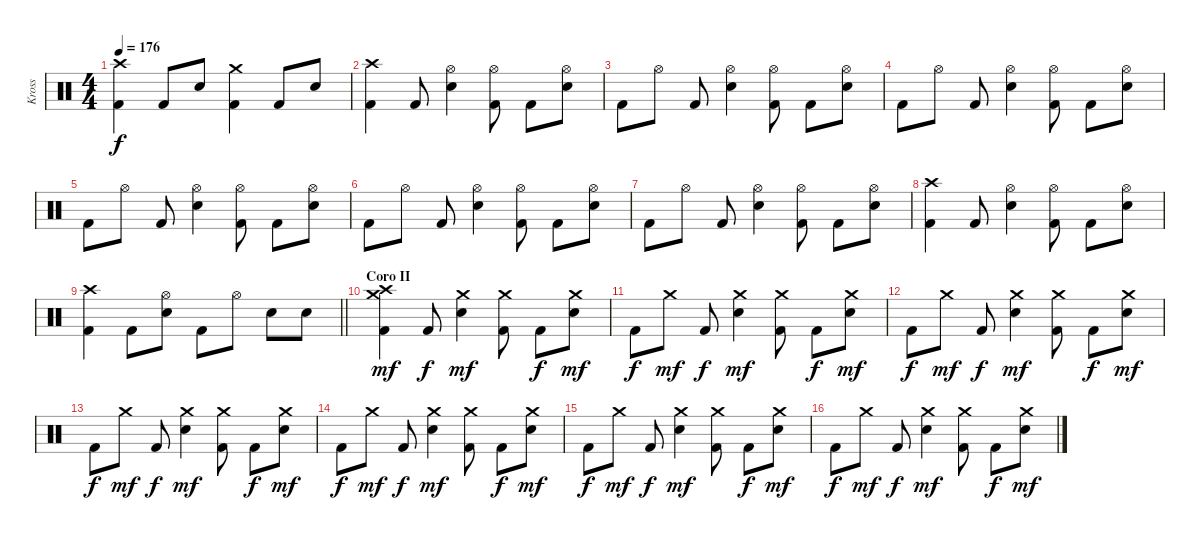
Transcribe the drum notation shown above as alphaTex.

\track ("Kross" "Kross") {instrument percussion}
\staff {score}
\articulation defaults
\ts (4 4)
\tempo 176
\clef neutral
\ks c
("Crash high (hit)" "Kick (hit) 2").4{dy f} "Kick (hit) 2".8 "Electric Snare (hit)".8 ("Crash medium (hit)" "Kick (hit) 2").4 "Kick (hit) 2".8 "Electric Snare (hit)".8 |
("Crash high (hit)" "Kick (hit) 2").4 "Kick (hit) 2".8 ("Hi-Hat (open)" "Electric Snare (hit)").4 ("Hi-Hat (open)" "Kick (hit) 2").8 "Kick (hit) 2".8 ("Hi-Hat (open)" "Electric Snare (hit)").8 |
"Kick (hit) 2".8 "Hi-Hat (open)".8 "Kick (hit) 2".8 ("Hi-Hat (open)" "Electric Snare (hit)").4 ("Hi-Hat (open)" "Kick (hit) 2").8 "Kick (hit) 2".8 ("Hi-Hat (open)" "Electric Snare (hit)").8 |
"Kick (hit) 2".8 "Hi-Hat (open)".8 "Kick (hit) 2".8 ("Hi-Hat (open)" "Electric Snare (hit)").4 ("Hi-Hat (open)" "Kick (hit) 2").8 "Kick (hit) 2".8 ("Hi-Hat (open)" "Electric Snare (hit)").8 |
"Kick (hit) 2".8 "Hi-Hat (open)".8 "Kick (hit) 2".8 ("Hi-Hat (open)" "Electric Snare (hit)").4 ("Hi-Hat (open)" "Kick (hit) 2").8 "Kick (hit) 2".8 ("Hi-Hat (open)" "Electric Snare (hit)").8 |
"Kick (hit) 2".8 "Hi-Hat (open)".8 "Kick (hit) 2".8 ("Hi-Hat (open)" "Electric Snare (hit)").4 ("Hi-Hat (open)" "Kick (hit) 2").8 "Kick (hit) 2".8 ("Hi-Hat (open)" "Electric Snare (hit)").8 |
"Kick (hit) 2".8 "Hi-Hat (open)".8 "Kick (hit) 2".8 ("Hi-Hat (open)" "Electric Snare (hit)").4 ("Hi-Hat (open)" "Kick (hit) 2").8 "Kick (hit) 2".8 ("Hi-Hat (open)" "Electric Snare (hit)").8 |
("Crash high (hit)" "Kick (hit) 2").4 "Kick (hit) 2".8 ("Hi-Hat (open)" "Electric Snare (hit)").4 ("Hi-Hat (open)" "Kick (hit) 2").8 "Kick (hit) 2".8 ("Hi-Hat (open)" "Electric Snare (hit)").8 |
\barLineRight lightlight
("Crash high (hit)" "Kick (hit) 2").4 "Kick (hit) 2".8 ("Hi-Hat (open)" "Electric Snare (hit)").8 "Kick (hit) 2".8 "Hi-Hat (open)".8 "Electric Snare (hit)".8 "Electric Snare (hit)".8 |
\section ("" "Coro II")
("Crash medium (hit)" "Crash high (hit)" "Kick (hit) 2").4{dy mf} "Kick (hit) 2".8{dy f} ("Crash medium (hit)" "Electric Snare (hit)").4{dy mf} ("Crash medium (hit)" "Kick (hit) 2").8 "Kick (hit) 2".8{dy f} ("Crash medium (hit)" "Electric Snare (hit)").8{dy mf} |
"Kick (hit) 2".8{dy f} "Crash medium (hit)".8{dy mf} "Kick (hit) 2".8{dy f} ("Crash medium (hit)" "Electric Snare (hit)").4{dy mf} ("Crash medium (hit)" "Kick (hit) 2").8 "Kick (hit) 2".8{dy f} ("Crash medium (hit)" "Electric Snare (hit)").8{dy mf} |
"Kick (hit) 2".8{dy f} "Crash medium (hit)".8{dy mf} "Kick (hit) 2".8{dy f} ("Crash medium (hit)" "Electric Snare (hit)").4{dy mf} ("Crash medium (hit)" "Kick (hit) 2").8 "Kick (hit) 2".8{dy f} ("Crash medium (hit)" "Electric Snare (hit)").8{dy mf} |
"Kick (hit) 2".8{dy f} "Crash medium (hit)".8{dy mf} "Kick (hit) 2".8{dy f} ("Crash medium (hit)" "Electric Snare (hit)").4{dy mf} ("Crash medium (hit)" "Kick (hit) 2").8 "Kick (hit) 2".8{dy f} ("Crash medium (hit)" "Electric Snare (hit)").8{dy mf} |
"Kick (hit) 2".8{dy f} "Crash medium (hit)".8{dy mf} "Kick (hit) 2".8{dy f} ("Crash medium (hit)" "Electric Snare (hit)").4{dy mf} ("Crash medium (hit)" "Kick (hit) 2").8 "Kick (hit) 2".8{dy f} ("Crash medium (hit)" "Electric Snare (hit)").8{dy mf} |
"Kick (hit) 2".8{dy f} "Crash medium (hit)".8{dy mf} "Kick (hit) 2".8{dy f} ("Crash medium (hit)" "Electric Snare (hit)").4{dy mf} ("Crash medium (hit)" "Kick (hit) 2").8 "Kick (hit) 2".8{dy f} ("Crash medium (hit)" "Electric Snare (hit)").8{dy mf} |
"Kick (hit) 2".8{dy f} "Crash medium (hit)".8{dy mf} "Kick (hit) 2".8{dy f} ("Crash medium (hit)" "Electric Snare (hit)").4{dy mf} ("Crash medium (hit)" "Kick (hit) 2").8 "Kick (hit) 2".8{dy f} ("Crash medium (hit)" "Electric Snare (hit)").8{dy mf}
